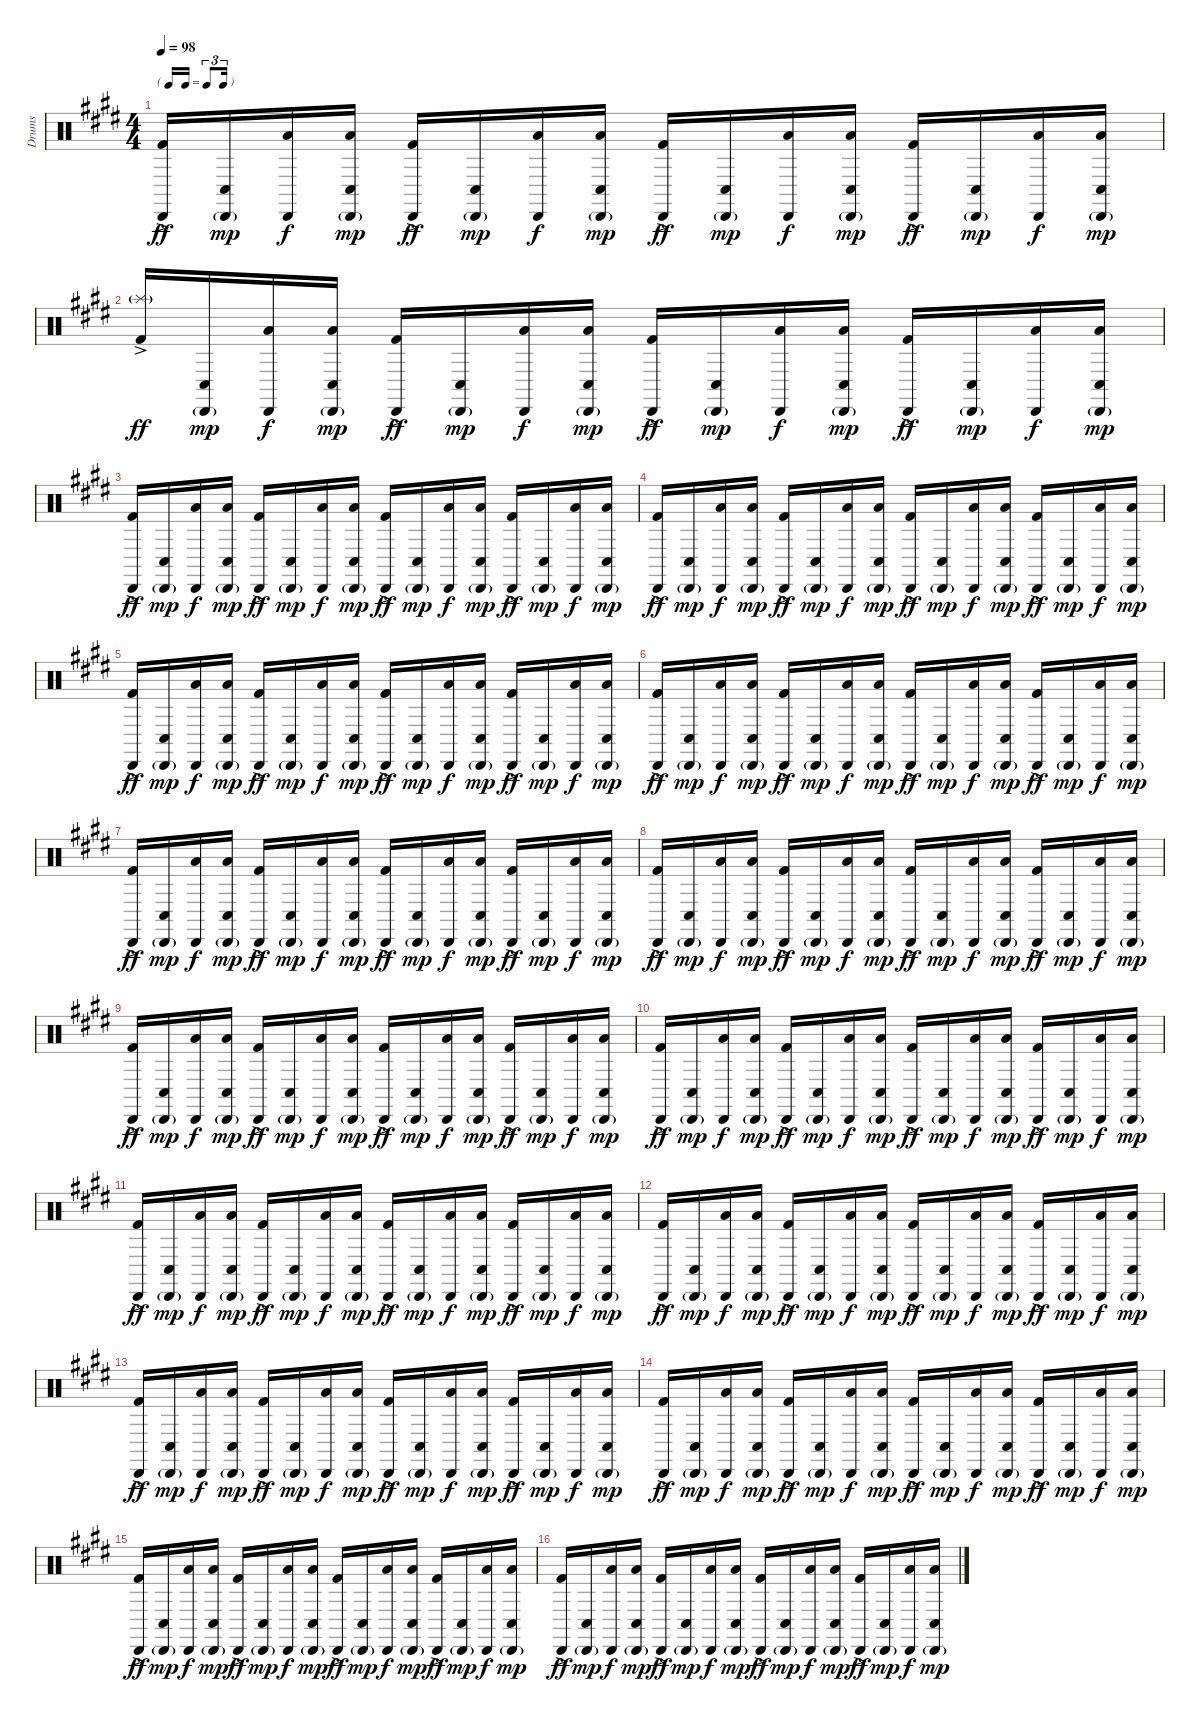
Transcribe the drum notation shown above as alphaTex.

\track ("Drums" "Drums") {instrument percussion}
\staff {score}
\articulation defaults
\ts (4 4)
\tf triplet16th
\tempo 98
\clef neutral
\ks e
("Cabasa (hit)" "Kick (hit) 2"{ac}).16{dy ff} ("Cabasa (hit)"{g} "Conga low (hit)").16{dy mp} ("Cabasa (hit)" "Low Tom (hit)").16{dy f} ("Cabasa (hit)"{g} "Low Tom (hit)" "Conga low (hit)").16{dy mp} ("Cabasa (hit)" "Kick (hit) 2"{ac}).16{dy ff} ("Cabasa (hit)"{g} "Conga low (hit)").16{dy mp} ("Cabasa (hit)" "Low Tom (hit)").16{dy f} ("Cabasa (hit)"{g} "Low Tom (hit)" "Conga low (hit)").16{dy mp} ("Cabasa (hit)" "Kick (hit) 2"{ac}).16{dy ff} ("Cabasa (hit)"{g} "Conga low (hit)").16{dy mp} ("Cabasa (hit)" "Low Tom (hit)").16{dy f} ("Cabasa (hit)"{g} "Low Tom (hit)" "Conga low (hit)").16{dy mp} ("Cabasa (hit)" "Kick (hit) 2"{ac}).16{dy ff} ("Cabasa (hit)"{g} "Conga low (hit)").16{dy mp} ("Cabasa (hit)" "Low Tom (hit)").16{dy f} ("Cabasa (hit)"{g} "Low Tom (hit)" "Conga low (hit)").16{dy mp} |
("Splash (hit)"{g} "Kick (hit) 2"{ac}).16{dy ff} ("Cabasa (hit)"{g} "Conga low (hit)").16{dy mp} ("Cabasa (hit)" "Low Tom (hit)").16{dy f} ("Cabasa (hit)"{g} "Low Tom (hit)" "Conga low (hit)").16{dy mp} ("Cabasa (hit)" "Kick (hit) 2"{ac}).16{dy ff} ("Cabasa (hit)"{g} "Conga low (hit)").16{dy mp} ("Cabasa (hit)" "Low Tom (hit)").16{dy f} ("Cabasa (hit)"{g} "Low Tom (hit)" "Conga low (hit)").16{dy mp} ("Cabasa (hit)" "Kick (hit) 2"{ac}).16{dy ff} ("Cabasa (hit)"{g} "Conga low (hit)").16{dy mp} ("Cabasa (hit)" "Low Tom (hit)").16{dy f} ("Cabasa (hit)"{g} "Low Tom (hit)" "Conga low (hit)").16{dy mp} ("Cabasa (hit)" "Kick (hit) 2"{ac}).16{dy ff} ("Cabasa (hit)"{g} "Conga low (hit)").16{dy mp} ("Cabasa (hit)" "Low Tom (hit)").16{dy f} ("Cabasa (hit)"{g} "Low Tom (hit)" "Conga low (hit)").16{dy mp} |
("Cabasa (hit)" "Kick (hit) 2"{ac}).16{dy ff} ("Cabasa (hit)"{g} "Conga low (hit)").16{dy mp} ("Cabasa (hit)" "Low Tom (hit)").16{dy f} ("Cabasa (hit)"{g} "Low Tom (hit)" "Conga low (hit)").16{dy mp} ("Cabasa (hit)" "Kick (hit) 2"{ac}).16{dy ff} ("Cabasa (hit)"{g} "Conga low (hit)").16{dy mp} ("Cabasa (hit)" "Low Tom (hit)").16{dy f} ("Cabasa (hit)"{g} "Low Tom (hit)" "Conga low (hit)").16{dy mp} ("Cabasa (hit)" "Kick (hit) 2"{ac}).16{dy ff} ("Cabasa (hit)"{g} "Conga low (hit)").16{dy mp} ("Cabasa (hit)" "Low Tom (hit)").16{dy f} ("Cabasa (hit)"{g} "Low Tom (hit)" "Conga low (hit)").16{dy mp} ("Cabasa (hit)" "Kick (hit) 2"{ac}).16{dy ff} ("Cabasa (hit)"{g} "Conga low (hit)").16{dy mp} ("Cabasa (hit)" "Low Tom (hit)").16{dy f} ("Cabasa (hit)"{g} "Low Tom (hit)" "Conga low (hit)").16{dy mp} |
("Cabasa (hit)" "Kick (hit) 2"{ac}).16{dy ff} ("Cabasa (hit)"{g} "Conga low (hit)").16{dy mp} ("Cabasa (hit)" "Low Tom (hit)").16{dy f} ("Cabasa (hit)"{g} "Low Tom (hit)" "Conga low (hit)").16{dy mp} ("Cabasa (hit)" "Kick (hit) 2"{ac}).16{dy ff} ("Cabasa (hit)"{g} "Conga low (hit)").16{dy mp} ("Cabasa (hit)" "Low Tom (hit)").16{dy f} ("Cabasa (hit)"{g} "Low Tom (hit)" "Conga low (hit)").16{dy mp} ("Cabasa (hit)" "Kick (hit) 2"{ac}).16{dy ff} ("Cabasa (hit)"{g} "Conga low (hit)").16{dy mp} ("Cabasa (hit)" "Low Tom (hit)").16{dy f} ("Cabasa (hit)"{g} "Low Tom (hit)" "Conga low (hit)").16{dy mp} ("Cabasa (hit)" "Kick (hit) 2"{ac}).16{dy ff} ("Cabasa (hit)"{g} "Conga low (hit)").16{dy mp} ("Cabasa (hit)" "Low Tom (hit)").16{dy f} ("Cabasa (hit)"{g} "Low Tom (hit)" "Conga low (hit)").16{dy mp} |
("Cabasa (hit)" "Kick (hit) 2"{ac}).16{dy ff} ("Cabasa (hit)"{g} "Conga low (hit)").16{dy mp} ("Cabasa (hit)" "Low Tom (hit)").16{dy f} ("Cabasa (hit)"{g} "Low Tom (hit)" "Conga low (hit)").16{dy mp} ("Cabasa (hit)" "Kick (hit) 2"{ac}).16{dy ff} ("Cabasa (hit)"{g} "Conga low (hit)").16{dy mp} ("Cabasa (hit)" "Low Tom (hit)").16{dy f} ("Cabasa (hit)"{g} "Low Tom (hit)" "Conga low (hit)").16{dy mp} ("Cabasa (hit)" "Kick (hit) 2"{ac}).16{dy ff} ("Cabasa (hit)"{g} "Conga low (hit)").16{dy mp} ("Cabasa (hit)" "Low Tom (hit)").16{dy f} ("Cabasa (hit)"{g} "Low Tom (hit)" "Conga low (hit)").16{dy mp} ("Cabasa (hit)" "Kick (hit) 2"{ac}).16{dy ff} ("Cabasa (hit)"{g} "Conga low (hit)").16{dy mp} ("Cabasa (hit)" "Low Tom (hit)").16{dy f} ("Cabasa (hit)"{g} "Low Tom (hit)" "Conga low (hit)").16{dy mp} |
("Cabasa (hit)" "Kick (hit) 2"{ac}).16{dy ff} ("Cabasa (hit)"{g} "Conga low (hit)").16{dy mp} ("Cabasa (hit)" "Low Tom (hit)").16{dy f} ("Cabasa (hit)"{g} "Low Tom (hit)" "Conga low (hit)").16{dy mp} ("Cabasa (hit)" "Kick (hit) 2"{ac}).16{dy ff} ("Cabasa (hit)"{g} "Conga low (hit)").16{dy mp} ("Cabasa (hit)" "Low Tom (hit)").16{dy f} ("Cabasa (hit)"{g} "Low Tom (hit)" "Conga low (hit)").16{dy mp} ("Cabasa (hit)" "Kick (hit) 2"{ac}).16{dy ff} ("Cabasa (hit)"{g} "Conga low (hit)").16{dy mp} ("Cabasa (hit)" "Low Tom (hit)").16{dy f} ("Cabasa (hit)"{g} "Low Tom (hit)" "Conga low (hit)").16{dy mp} ("Cabasa (hit)" "Kick (hit) 2"{ac}).16{dy ff} ("Cabasa (hit)"{g} "Conga low (hit)").16{dy mp} ("Cabasa (hit)" "Low Tom (hit)").16{dy f} ("Cabasa (hit)"{g} "Low Tom (hit)" "Conga low (hit)").16{dy mp} |
("Cabasa (hit)" "Kick (hit) 2"{ac}).16{dy ff} ("Cabasa (hit)"{g} "Conga low (hit)").16{dy mp} ("Cabasa (hit)" "Low Tom (hit)").16{dy f} ("Cabasa (hit)"{g} "Low Tom (hit)" "Conga low (hit)").16{dy mp} ("Cabasa (hit)" "Kick (hit) 2"{ac}).16{dy ff} ("Cabasa (hit)"{g} "Conga low (hit)").16{dy mp} ("Cabasa (hit)" "Low Tom (hit)").16{dy f} ("Cabasa (hit)"{g} "Low Tom (hit)" "Conga low (hit)").16{dy mp} ("Cabasa (hit)" "Kick (hit) 2"{ac}).16{dy ff} ("Cabasa (hit)"{g} "Conga low (hit)").16{dy mp} ("Cabasa (hit)" "Low Tom (hit)").16{dy f} ("Cabasa (hit)"{g} "Low Tom (hit)" "Conga low (hit)").16{dy mp} ("Cabasa (hit)" "Kick (hit) 2"{ac}).16{dy ff} ("Cabasa (hit)"{g} "Conga low (hit)").16{dy mp} ("Cabasa (hit)" "Low Tom (hit)").16{dy f} ("Cabasa (hit)"{g} "Low Tom (hit)" "Conga low (hit)").16{dy mp} |
("Cabasa (hit)" "Kick (hit) 2"{ac}).16{dy ff} ("Cabasa (hit)"{g} "Conga low (hit)").16{dy mp} ("Cabasa (hit)" "Low Tom (hit)").16{dy f} ("Cabasa (hit)"{g} "Low Tom (hit)" "Conga low (hit)").16{dy mp} ("Cabasa (hit)" "Kick (hit) 2"{ac}).16{dy ff} ("Cabasa (hit)"{g} "Conga low (hit)").16{dy mp} ("Cabasa (hit)" "Low Tom (hit)").16{dy f} ("Cabasa (hit)"{g} "Low Tom (hit)" "Conga low (hit)").16{dy mp} ("Cabasa (hit)" "Kick (hit) 2"{ac}).16{dy ff} ("Cabasa (hit)"{g} "Conga low (hit)").16{dy mp} ("Cabasa (hit)" "Low Tom (hit)").16{dy f} ("Cabasa (hit)"{g} "Low Tom (hit)" "Conga low (hit)").16{dy mp} ("Cabasa (hit)" "Kick (hit) 2"{ac}).16{dy ff} ("Cabasa (hit)"{g} "Conga low (hit)").16{dy mp} ("Cabasa (hit)" "Low Tom (hit)").16{dy f} ("Cabasa (hit)"{g} "Low Tom (hit)" "Conga low (hit)").16{dy mp} |
("Cabasa (hit)" "Kick (hit) 2"{ac}).16{dy ff} ("Cabasa (hit)"{g} "Conga low (hit)").16{dy mp} ("Cabasa (hit)" "Low Tom (hit)").16{dy f} ("Cabasa (hit)"{g} "Low Tom (hit)" "Conga low (hit)").16{dy mp} ("Cabasa (hit)" "Kick (hit) 2"{ac}).16{dy ff} ("Cabasa (hit)"{g} "Conga low (hit)").16{dy mp} ("Cabasa (hit)" "Low Tom (hit)").16{dy f} ("Cabasa (hit)"{g} "Low Tom (hit)" "Conga low (hit)").16{dy mp} ("Cabasa (hit)" "Kick (hit) 2"{ac}).16{dy ff} ("Cabasa (hit)"{g} "Conga low (hit)").16{dy mp} ("Cabasa (hit)" "Low Tom (hit)").16{dy f} ("Cabasa (hit)"{g} "Low Tom (hit)" "Conga low (hit)").16{dy mp} ("Cabasa (hit)" "Kick (hit) 2"{ac}).16{dy ff} ("Cabasa (hit)"{g} "Conga low (hit)").16{dy mp} ("Cabasa (hit)" "Low Tom (hit)").16{dy f} ("Cabasa (hit)"{g} "Low Tom (hit)" "Conga low (hit)").16{dy mp} |
("Cabasa (hit)" "Kick (hit) 2"{ac}).16{dy ff} ("Cabasa (hit)"{g} "Conga low (hit)").16{dy mp} ("Cabasa (hit)" "Low Tom (hit)").16{dy f} ("Cabasa (hit)"{g} "Low Tom (hit)" "Conga low (hit)").16{dy mp} ("Cabasa (hit)" "Kick (hit) 2"{ac}).16{dy ff} ("Cabasa (hit)"{g} "Conga low (hit)").16{dy mp} ("Cabasa (hit)" "Low Tom (hit)").16{dy f} ("Cabasa (hit)"{g} "Low Tom (hit)" "Conga low (hit)").16{dy mp} ("Cabasa (hit)" "Kick (hit) 2"{ac}).16{dy ff} ("Cabasa (hit)"{g} "Conga low (hit)").16{dy mp} ("Cabasa (hit)" "Low Tom (hit)").16{dy f} ("Cabasa (hit)"{g} "Low Tom (hit)" "Conga low (hit)").16{dy mp} ("Cabasa (hit)" "Kick (hit) 2"{ac}).16{dy ff} ("Cabasa (hit)"{g} "Conga low (hit)").16{dy mp} ("Cabasa (hit)" "Low Tom (hit)").16{dy f} ("Cabasa (hit)"{g} "Low Tom (hit)" "Conga low (hit)").16{dy mp} |
("Cabasa (hit)" "Kick (hit) 2"{ac}).16{dy ff} ("Cabasa (hit)"{g} "Conga low (hit)").16{dy mp} ("Cabasa (hit)" "Low Tom (hit)").16{dy f} ("Cabasa (hit)"{g} "Low Tom (hit)" "Conga low (hit)").16{dy mp} ("Cabasa (hit)" "Kick (hit) 2"{ac}).16{dy ff} ("Cabasa (hit)"{g} "Conga low (hit)").16{dy mp} ("Cabasa (hit)" "Low Tom (hit)").16{dy f} ("Cabasa (hit)"{g} "Low Tom (hit)" "Conga low (hit)").16{dy mp} ("Cabasa (hit)" "Kick (hit) 2"{ac}).16{dy ff} ("Cabasa (hit)"{g} "Conga low (hit)").16{dy mp} ("Cabasa (hit)" "Low Tom (hit)").16{dy f} ("Cabasa (hit)"{g} "Low Tom (hit)" "Conga low (hit)").16{dy mp} ("Cabasa (hit)" "Kick (hit) 2"{ac}).16{dy ff} ("Cabasa (hit)"{g} "Conga low (hit)").16{dy mp} ("Cabasa (hit)" "Low Tom (hit)").16{dy f} ("Cabasa (hit)"{g} "Low Tom (hit)" "Conga low (hit)").16{dy mp} |
("Cabasa (hit)" "Kick (hit) 2"{ac}).16{dy ff} ("Cabasa (hit)"{g} "Conga low (hit)").16{dy mp} ("Cabasa (hit)" "Low Tom (hit)").16{dy f} ("Cabasa (hit)"{g} "Low Tom (hit)" "Conga low (hit)").16{dy mp} ("Cabasa (hit)" "Kick (hit) 2"{ac}).16{dy ff} ("Cabasa (hit)"{g} "Conga low (hit)").16{dy mp} ("Cabasa (hit)" "Low Tom (hit)").16{dy f} ("Cabasa (hit)"{g} "Low Tom (hit)" "Conga low (hit)").16{dy mp} ("Cabasa (hit)" "Kick (hit) 2"{ac}).16{dy ff} ("Cabasa (hit)"{g} "Conga low (hit)").16{dy mp} ("Cabasa (hit)" "Low Tom (hit)").16{dy f} ("Cabasa (hit)"{g} "Low Tom (hit)" "Conga low (hit)").16{dy mp} ("Cabasa (hit)" "Kick (hit) 2"{ac}).16{dy ff} ("Cabasa (hit)"{g} "Conga low (hit)").16{dy mp} ("Cabasa (hit)" "Low Tom (hit)").16{dy f} ("Cabasa (hit)"{g} "Low Tom (hit)" "Conga low (hit)").16{dy mp} |
("Cabasa (hit)" "Kick (hit) 2"{ac}).16{dy ff} ("Cabasa (hit)"{g} "Conga low (hit)").16{dy mp} ("Cabasa (hit)" "Low Tom (hit)").16{dy f} ("Cabasa (hit)"{g} "Low Tom (hit)" "Conga low (hit)").16{dy mp} ("Cabasa (hit)" "Kick (hit) 2"{ac}).16{dy ff} ("Cabasa (hit)"{g} "Conga low (hit)").16{dy mp} ("Cabasa (hit)" "Low Tom (hit)").16{dy f} ("Cabasa (hit)"{g} "Low Tom (hit)" "Conga low (hit)").16{dy mp} ("Cabasa (hit)" "Kick (hit) 2"{ac}).16{dy ff} ("Cabasa (hit)"{g} "Conga low (hit)").16{dy mp} ("Cabasa (hit)" "Low Tom (hit)").16{dy f} ("Cabasa (hit)"{g} "Low Tom (hit)" "Conga low (hit)").16{dy mp} ("Cabasa (hit)" "Kick (hit) 2"{ac}).16{dy ff} ("Cabasa (hit)"{g} "Conga low (hit)").16{dy mp} ("Cabasa (hit)" "Low Tom (hit)").16{dy f} ("Cabasa (hit)"{g} "Low Tom (hit)" "Conga low (hit)").16{dy mp} |
("Cabasa (hit)" "Kick (hit) 2"{ac}).16{dy ff} ("Cabasa (hit)"{g} "Conga low (hit)").16{dy mp} ("Cabasa (hit)" "Low Tom (hit)").16{dy f} ("Cabasa (hit)"{g} "Low Tom (hit)" "Conga low (hit)").16{dy mp} ("Cabasa (hit)" "Kick (hit) 2"{ac}).16{dy ff} ("Cabasa (hit)"{g} "Conga low (hit)").16{dy mp} ("Cabasa (hit)" "Low Tom (hit)").16{dy f} ("Cabasa (hit)"{g} "Low Tom (hit)" "Conga low (hit)").16{dy mp} ("Cabasa (hit)" "Kick (hit) 2"{ac}).16{dy ff} ("Cabasa (hit)"{g} "Conga low (hit)").16{dy mp} ("Cabasa (hit)" "Low Tom (hit)").16{dy f} ("Cabasa (hit)"{g} "Low Tom (hit)" "Conga low (hit)").16{dy mp} ("Cabasa (hit)" "Kick (hit) 2"{ac}).16{dy ff} ("Cabasa (hit)"{g} "Conga low (hit)").16{dy mp} ("Cabasa (hit)" "Low Tom (hit)").16{dy f} ("Cabasa (hit)"{g} "Low Tom (hit)" "Conga low (hit)").16{dy mp} |
("Cabasa (hit)" "Kick (hit) 2"{ac}).16{dy ff} ("Cabasa (hit)"{g} "Conga low (hit)").16{dy mp} ("Cabasa (hit)" "Low Tom (hit)").16{dy f} ("Cabasa (hit)"{g} "Low Tom (hit)" "Conga low (hit)").16{dy mp} ("Cabasa (hit)" "Kick (hit) 2"{ac}).16{dy ff} ("Cabasa (hit)"{g} "Conga low (hit)").16{dy mp} ("Cabasa (hit)" "Low Tom (hit)").16{dy f} ("Cabasa (hit)"{g} "Low Tom (hit)" "Conga low (hit)").16{dy mp} ("Cabasa (hit)" "Kick (hit) 2"{ac}).16{dy ff} ("Cabasa (hit)"{g} "Conga low (hit)").16{dy mp} ("Cabasa (hit)" "Low Tom (hit)").16{dy f} ("Cabasa (hit)"{g} "Low Tom (hit)" "Conga low (hit)").16{dy mp} ("Cabasa (hit)" "Kick (hit) 2"{ac}).16{dy ff} ("Cabasa (hit)"{g} "Conga low (hit)").16{dy mp} ("Cabasa (hit)" "Low Tom (hit)").16{dy f} ("Cabasa (hit)"{g} "Low Tom (hit)" "Conga low (hit)").16{dy mp} |
("Cabasa (hit)" "Kick (hit) 2"{ac}).16{dy ff} ("Cabasa (hit)"{g} "Conga low (hit)").16{dy mp} ("Cabasa (hit)" "Low Tom (hit)").16{dy f} ("Cabasa (hit)"{g} "Low Tom (hit)" "Conga low (hit)").16{dy mp} ("Cabasa (hit)" "Kick (hit) 2"{ac}).16{dy ff} ("Cabasa (hit)"{g} "Conga low (hit)").16{dy mp} ("Cabasa (hit)" "Low Tom (hit)").16{dy f} ("Cabasa (hit)"{g} "Low Tom (hit)" "Conga low (hit)").16{dy mp} ("Cabasa (hit)" "Kick (hit) 2"{ac}).16{dy ff} ("Cabasa (hit)"{g} "Conga low (hit)").16{dy mp} ("Cabasa (hit)" "Low Tom (hit)").16{dy f} ("Cabasa (hit)"{g} "Low Tom (hit)" "Conga low (hit)").16{dy mp} ("Cabasa (hit)" "Kick (hit) 2"{ac}).16{dy ff} ("Cabasa (hit)"{g} "Conga low (hit)").16{dy mp} ("Cabasa (hit)" "Low Tom (hit)").16{dy f} ("Cabasa (hit)"{g} "Low Tom (hit)" "Conga low (hit)").16{dy mp}
